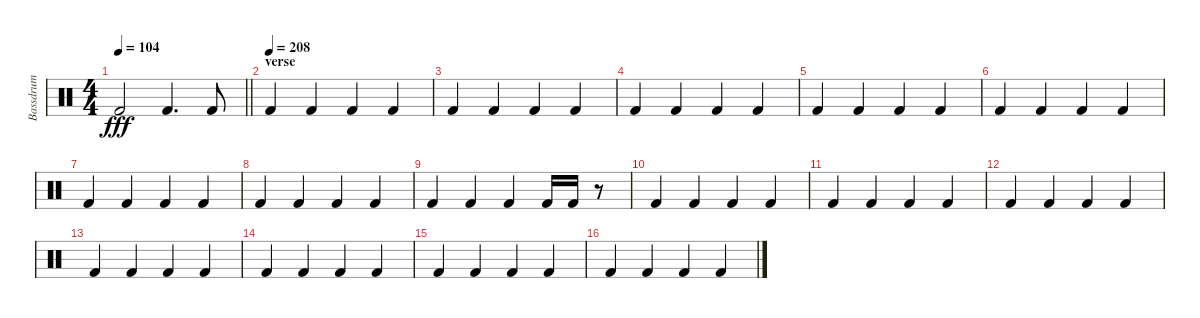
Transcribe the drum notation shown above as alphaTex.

\track ("Bassdrum" "Bassdrum") {instrument percussion}
\staff {score}
\articulation defaults
\ts (4 4)
\tempo 104
\clef neutral
\barLineRight lightlight
\ks c "Kick (hit) 2".2{dy fff} "Kick (hit) 2".4{d} "Kick (hit) 2".8
|
\section ("" "verse")
\tempo (208)
"Kick (hit) 2".4 "Kick (hit) 2".4 "Kick (hit) 2".4 "Kick (hit) 2".4 |
"Kick (hit) 2".4 "Kick (hit) 2".4 "Kick (hit) 2".4 "Kick (hit) 2".4 |
"Kick (hit) 2".4 "Kick (hit) 2".4 "Kick (hit) 2".4 "Kick (hit) 2".4 |
"Kick (hit) 2".4 "Kick (hit) 2".4 "Kick (hit) 2".4 "Kick (hit) 2".4 |
"Kick (hit) 2".4 "Kick (hit) 2".4 "Kick (hit) 2".4 "Kick (hit) 2".4 |
"Kick (hit) 2".4 "Kick (hit) 2".4 "Kick (hit) 2".4 "Kick (hit) 2".4 |
"Kick (hit) 2".4 "Kick (hit) 2".4 "Kick (hit) 2".4 "Kick (hit) 2".4 |
"Kick (hit) 2".4 "Kick (hit) 2".4 "Kick (hit) 2".4 "Kick (hit) 2".16 "Kick (hit) 2".16 r.8 |
"Kick (hit) 2".4 "Kick (hit) 2".4 "Kick (hit) 2".4 "Kick (hit) 2".4 |
"Kick (hit) 2".4 "Kick (hit) 2".4 "Kick (hit) 2".4 "Kick (hit) 2".4 |
"Kick (hit) 2".4 "Kick (hit) 2".4 "Kick (hit) 2".4 "Kick (hit) 2".4 |
"Kick (hit) 2".4 "Kick (hit) 2".4 "Kick (hit) 2".4 "Kick (hit) 2".4 |
"Kick (hit) 2".4 "Kick (hit) 2".4 "Kick (hit) 2".4 "Kick (hit) 2".4 |
"Kick (hit) 2".4 "Kick (hit) 2".4 "Kick (hit) 2".4 "Kick (hit) 2".4 |
"Kick (hit) 2".4 "Kick (hit) 2".4 "Kick (hit) 2".4 "Kick (hit) 2".4
